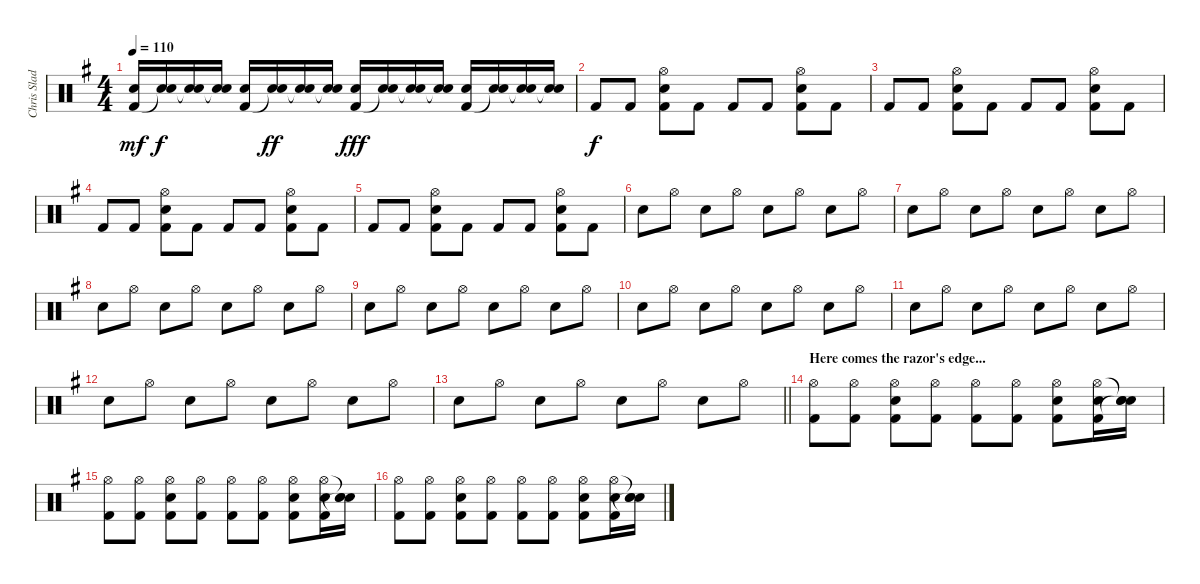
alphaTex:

\track ("Chris Slade (Percussion)" "Chris Slad") {instrument percussion}
\staff {score}
\articulation defaults
\ts (4 4)
\tempo 110
\clef neutral
\ks g
("Snare (hit) 2" "Kick (hit) 2").16{dy mf} ("Snare (hit) 2" "Snare (hit)"{t}).16{dy f} ("Snare (hit) 2" "Snare (hit)"{t}).16 ("Snare (hit) 2" "Snare (hit)"{t}).16 ("Snare (hit) 2" "Kick (hit) 2").16 ("Snare (hit) 2" "Snare (hit)"{t}).16{dy ff} ("Snare (hit) 2" "Snare (hit)"{t}).16 ("Snare (hit) 2" "Snare (hit)"{t}).16 ("Snare (hit) 2" "Kick (hit) 2").16{dy fff} ("Snare (hit) 2" "Snare (hit)"{t}).16 ("Snare (hit) 2" "Snare (hit)"{t}).16 ("Snare (hit) 2" "Snare (hit)"{t}).16 ("Snare (hit) 2" "Kick (hit) 2").16 ("Snare (hit) 2" "Snare (hit)"{t}).16 ("Snare (hit) 2" "Snare (hit)"{t}).16 ("Snare (hit) 2" "Snare (hit)"{t}).16 |
"Kick (hit) 2".8{dy f} "Kick (hit) 2".8 ("Hi-Hat (open)" "Snare (hit) 2" "Kick (hit) 2").8 "Kick (hit) 2".8 "Kick (hit) 2".8 "Kick (hit) 2".8 ("Hi-Hat (open)" "Snare (hit) 2" "Kick (hit) 2").8 "Kick (hit) 2".8 |
"Kick (hit) 2".8 "Kick (hit) 2".8 ("Hi-Hat (open)" "Snare (hit) 2" "Kick (hit) 2").8 "Kick (hit) 2".8 "Kick (hit) 2".8 "Kick (hit) 2".8 ("Hi-Hat (open)" "Snare (hit) 2" "Kick (hit) 2").8 "Kick (hit) 2".8 |
"Kick (hit) 2".8 "Kick (hit) 2".8 ("Hi-Hat (open)" "Snare (hit) 2" "Kick (hit) 2").8 "Kick (hit) 2".8 "Kick (hit) 2".8 "Kick (hit) 2".8 ("Hi-Hat (open)" "Snare (hit) 2" "Kick (hit) 2").8 "Kick (hit) 2".8 |
"Kick (hit) 2".8 "Kick (hit) 2".8 ("Hi-Hat (open)" "Snare (hit) 2" "Kick (hit) 2").8 "Kick (hit) 2".8 "Kick (hit) 2".8 "Kick (hit) 2".8 ("Hi-Hat (open)" "Snare (hit) 2" "Kick (hit) 2").8 "Kick (hit) 2".8 |
"Snare (hit) 2".8 "Hi-Hat (open)".8 "Snare (hit) 2".8 "Hi-Hat (open)".8 "Snare (hit) 2".8 "Hi-Hat (open)".8 "Snare (hit) 2".8 "Hi-Hat (open)".8 |
"Snare (hit) 2".8 "Hi-Hat (open)".8 "Snare (hit) 2".8 "Hi-Hat (open)".8 "Snare (hit) 2".8 "Hi-Hat (open)".8 "Snare (hit) 2".8 "Hi-Hat (open)".8 |
"Snare (hit) 2".8 "Hi-Hat (open)".8 "Snare (hit) 2".8 "Hi-Hat (open)".8 "Snare (hit) 2".8 "Hi-Hat (open)".8 "Snare (hit) 2".8 "Hi-Hat (open)".8 |
"Snare (hit) 2".8 "Hi-Hat (open)".8 "Snare (hit) 2".8 "Hi-Hat (open)".8 "Snare (hit) 2".8 "Hi-Hat (open)".8 "Snare (hit) 2".8 "Hi-Hat (open)".8 |
"Snare (hit) 2".8 "Hi-Hat (open)".8 "Snare (hit) 2".8 "Hi-Hat (open)".8 "Snare (hit) 2".8 "Hi-Hat (open)".8 "Snare (hit) 2".8 "Hi-Hat (open)".8 |
"Snare (hit) 2".8 "Hi-Hat (open)".8 "Snare (hit) 2".8 "Hi-Hat (open)".8 "Snare (hit) 2".8 "Hi-Hat (open)".8 "Snare (hit) 2".8 "Hi-Hat (open)".8 |
"Snare (hit) 2".8 "Hi-Hat (open)".8 "Snare (hit) 2".8 "Hi-Hat (open)".8 "Snare (hit) 2".8 "Hi-Hat (open)".8 "Snare (hit) 2".8 "Hi-Hat (open)".8 |
\barLineRight lightlight "Snare (hit) 2".8 "Hi-Hat (open)".8 "Snare (hit) 2".8 "Hi-Hat (open)".8 "Snare (hit) 2".8 "Hi-Hat (open)".8 "Snare (hit) 2".8 "Hi-Hat (open)".8
|
\section ("" "Here comes the razor's edge...")
("Hi-Hat (open)" "Kick (hit) 2").8 ("Hi-Hat (open)" "Kick (hit) 2").8 ("Hi-Hat (open)" "Snare (hit) 2" "Kick (hit) 2").8 ("Hi-Hat (open)" "Kick (hit) 2").8 ("Hi-Hat (open)" "Kick (hit) 2").8 ("Hi-Hat (open)" "Kick (hit) 2").8 ("Hi-Hat (open)" "Snare (hit) 2" "Kick (hit) 2").8 ("Hi-Hat (open)" "Snare (hit) 2" "Kick (hit) 2").16 ("Snare (hit)"{t} "Snare (hit) 2" "Snare (hit)"{t}).16 |
("Hi-Hat (open)" "Kick (hit) 2").8 ("Hi-Hat (open)" "Kick (hit) 2").8 ("Hi-Hat (open)" "Snare (hit) 2" "Kick (hit) 2").8 ("Hi-Hat (open)" "Kick (hit) 2").8 ("Hi-Hat (open)" "Kick (hit) 2").8 ("Hi-Hat (open)" "Kick (hit) 2").8 ("Hi-Hat (open)" "Snare (hit) 2" "Kick (hit) 2").8 ("Hi-Hat (open)" "Snare (hit) 2" "Kick (hit) 2").16 ("Snare (hit)"{t} "Snare (hit) 2" "Snare (hit)"{t}).16 |
("Hi-Hat (open)" "Kick (hit) 2").8 ("Hi-Hat (open)" "Kick (hit) 2").8 ("Hi-Hat (open)" "Snare (hit) 2" "Kick (hit) 2").8 ("Hi-Hat (open)" "Kick (hit) 2").8 ("Hi-Hat (open)" "Kick (hit) 2").8 ("Hi-Hat (open)" "Kick (hit) 2").8 ("Hi-Hat (open)" "Snare (hit) 2" "Kick (hit) 2").8 ("Hi-Hat (open)" "Snare (hit) 2" "Kick (hit) 2").16 ("Snare (hit)"{t} "Snare (hit) 2" "Snare (hit)"{t}).16
